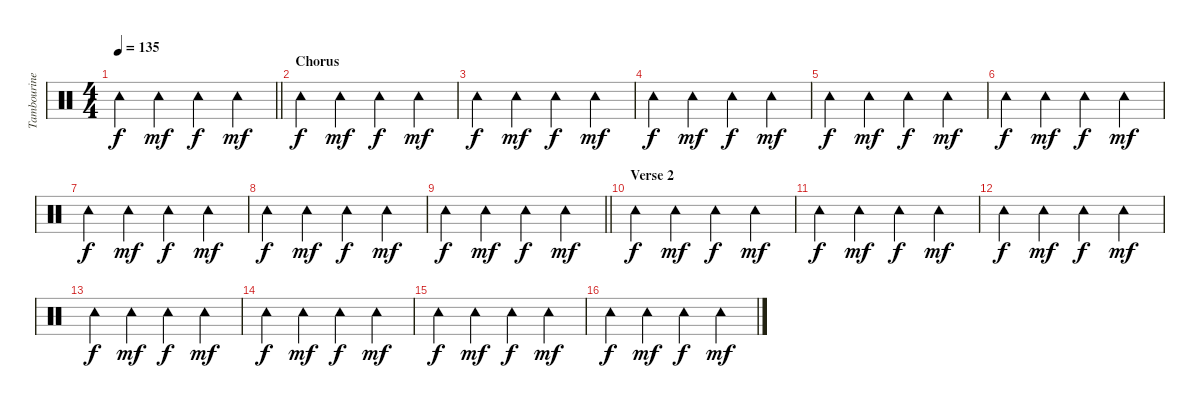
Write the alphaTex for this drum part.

\track ("Tambourine" "Tambourine") {instrument percussion}
\staff {score}
\articulation defaults
\ts (4 4)
\tempo 135
\clef neutral
\barLineRight lightlight
\ks c "Tambourine (hit)".4{dy f} "Tambourine (hit)".4{dy mf} "Tambourine (hit)".4{dy f} "Tambourine (hit)".4{dy mf}
|
\section ("" "Chorus")
"Tambourine (hit)".4{dy f} "Tambourine (hit)".4{dy mf} "Tambourine (hit)".4{dy f} "Tambourine (hit)".4{dy mf} |
"Tambourine (hit)".4{dy f} "Tambourine (hit)".4{dy mf} "Tambourine (hit)".4{dy f} "Tambourine (hit)".4{dy mf} |
"Tambourine (hit)".4{dy f} "Tambourine (hit)".4{dy mf} "Tambourine (hit)".4{dy f} "Tambourine (hit)".4{dy mf} |
"Tambourine (hit)".4{dy f} "Tambourine (hit)".4{dy mf} "Tambourine (hit)".4{dy f} "Tambourine (hit)".4{dy mf} |
"Tambourine (hit)".4{dy f} "Tambourine (hit)".4{dy mf} "Tambourine (hit)".4{dy f} "Tambourine (hit)".4{dy mf} |
"Tambourine (hit)".4{dy f} "Tambourine (hit)".4{dy mf} "Tambourine (hit)".4{dy f} "Tambourine (hit)".4{dy mf} |
"Tambourine (hit)".4{dy f} "Tambourine (hit)".4{dy mf} "Tambourine (hit)".4{dy f} "Tambourine (hit)".4{dy mf} |
\barLineRight lightlight "Tambourine (hit)".4{dy f} "Tambourine (hit)".4{dy mf} "Tambourine (hit)".4{dy f} "Tambourine (hit)".4{dy mf}
|
\section ("" "Verse 2")
"Tambourine (hit)".4{dy f} "Tambourine (hit)".4{dy mf} "Tambourine (hit)".4{dy f} "Tambourine (hit)".4{dy mf} |
"Tambourine (hit)".4{dy f} "Tambourine (hit)".4{dy mf} "Tambourine (hit)".4{dy f} "Tambourine (hit)".4{dy mf} |
"Tambourine (hit)".4{dy f} "Tambourine (hit)".4{dy mf} "Tambourine (hit)".4{dy f} "Tambourine (hit)".4{dy mf} |
"Tambourine (hit)".4{dy f} "Tambourine (hit)".4{dy mf} "Tambourine (hit)".4{dy f} "Tambourine (hit)".4{dy mf} |
"Tambourine (hit)".4{dy f} "Tambourine (hit)".4{dy mf} "Tambourine (hit)".4{dy f} "Tambourine (hit)".4{dy mf} |
"Tambourine (hit)".4{dy f} "Tambourine (hit)".4{dy mf} "Tambourine (hit)".4{dy f} "Tambourine (hit)".4{dy mf} |
"Tambourine (hit)".4{dy f} "Tambourine (hit)".4{dy mf} "Tambourine (hit)".4{dy f} "Tambourine (hit)".4{dy mf}
